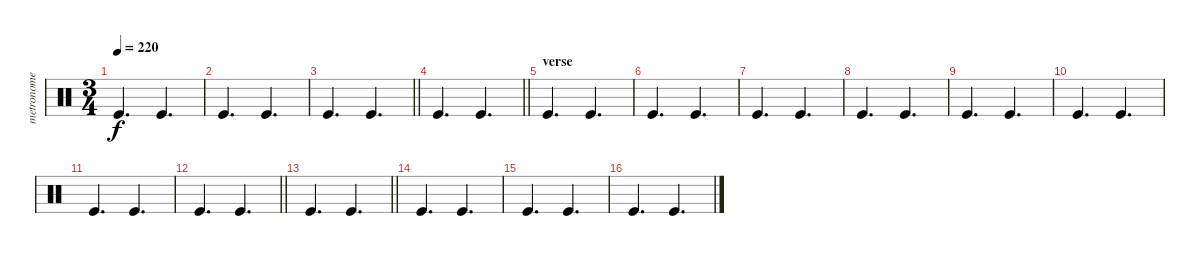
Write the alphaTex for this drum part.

\track ("metronome" "metronome") {instrument percussion}
\staff {score}
\articulation defaults
\ts (3 4)
\tempo 220
\clef neutral
\ks c "Kick (hit)".4{d dy f} "Kick (hit)".4{d}
|
"Kick (hit)".4{d} "Kick (hit)".4{d} |
\barLineRight lightlight "Kick (hit)".4{d} "Kick (hit)".4{d}
|
\section ("" "")
\barLineRight lightlight "Kick (hit)".4{d} "Kick (hit)".4{d}
|
\section ("" "verse")
"Kick (hit)".4{d} "Kick (hit)".4{d} |
"Kick (hit)".4{d} "Kick (hit)".4{d} |
"Kick (hit)".4{d} "Kick (hit)".4{d} |
"Kick (hit)".4{d} "Kick (hit)".4{d} |
"Kick (hit)".4{d} "Kick (hit)".4{d} |
"Kick (hit)".4{d} "Kick (hit)".4{d} |
"Kick (hit)".4{d} "Kick (hit)".4{d} |
\barLineRight lightlight "Kick (hit)".4{d} "Kick (hit)".4{d}
|
\barLineRight lightlight "Kick (hit)".4{d} "Kick (hit)".4{d}
|
"Kick (hit)".4{d} "Kick (hit)".4{d} |
"Kick (hit)".4{d} "Kick (hit)".4{d} |
"Kick (hit)".4{d} "Kick (hit)".4{d}
